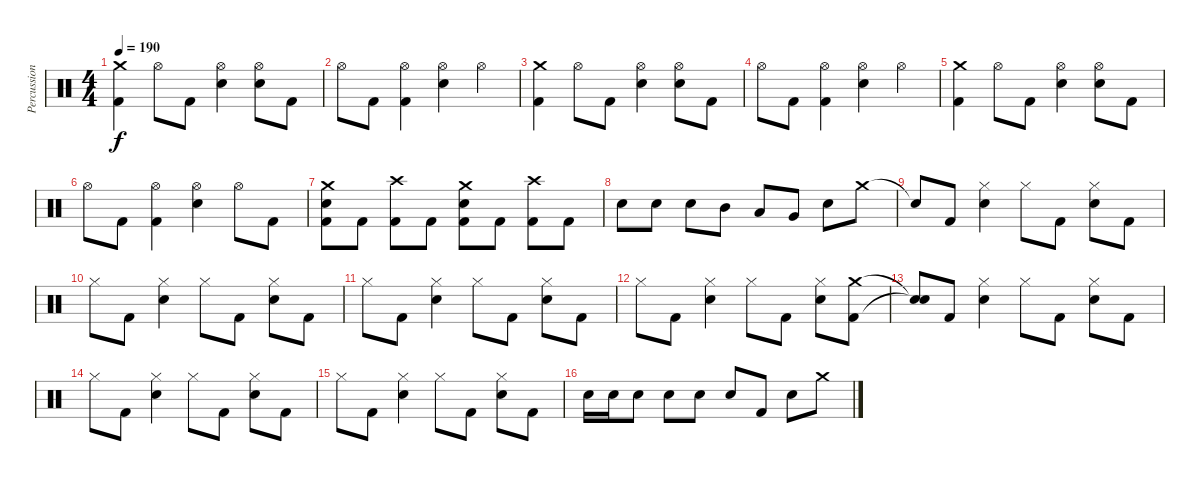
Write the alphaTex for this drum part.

\track ("Percussion" "Percussion") {instrument percussion}
\staff {score}
\articulation defaults
\ts (4 4)
\tempo 190
\clef neutral
\ks c
("Crash medium (hit)" "Kick (hit) 2").4{dy f} "Hi-Hat (open)".8 "Kick (hit) 2".8 ("Hi-Hat (open)" "Snare (hit) 2").4 ("Hi-Hat (open)" "Snare (hit) 2").8 "Kick (hit) 2".8 |
"Hi-Hat (open)".8 "Kick (hit) 2".8 ("Hi-Hat (open)" "Kick (hit) 2").4 ("Hi-Hat (open)" "Snare (hit) 2").4 "Hi-Hat (open)".4 |
("Crash medium (hit)" "Kick (hit) 2").4 "Hi-Hat (open)".8 "Kick (hit) 2".8 ("Hi-Hat (open)" "Snare (hit) 2").4 ("Hi-Hat (open)" "Snare (hit) 2").8 "Kick (hit) 2".8 |
"Hi-Hat (open)".8 "Kick (hit) 2".8 ("Hi-Hat (open)" "Kick (hit) 2").4 ("Hi-Hat (open)" "Snare (hit) 2").4 "Hi-Hat (open)".4 |
("Crash medium (hit)" "Kick (hit) 2").4 "Hi-Hat (open)".8 "Kick (hit) 2".8 ("Hi-Hat (open)" "Snare (hit) 2").4 ("Hi-Hat (open)" "Snare (hit) 2").8 "Kick (hit) 2".8 |
"Hi-Hat (open)".8 "Kick (hit) 2".8 ("Hi-Hat (open)" "Kick (hit) 2").4 ("Hi-Hat (open)" "Snare (hit) 2").4 "Hi-Hat (open)".8 "Kick (hit) 2".8 |
("Crash medium (hit)" "Snare (hit) 2" "Kick (hit) 2").8 "Kick (hit) 2".8 ("Crash high (hit)" "Kick (hit) 2").8 "Kick (hit) 2".8 ("Crash medium (hit)" "Snare (hit) 2" "Kick (hit) 2").8 "Kick (hit) 2".8 ("Crash high (hit)" "Kick (hit) 2").8 "Kick (hit) 2".8 |
"Snare (hit) 2".8 "Snare (hit) 2".8 "Snare (hit) 2".8 "Mid Tom (hit)".8 "Low Tom (hit)".8 "Very Low Tom (hit)".8 "Snare (hit) 2".8 "Crash medium (hit)".8 |
"Snare (hit)"{t}.8 "Kick (hit) 2".8 ("Hi-Hat (closed)" "Snare (hit) 2").4 "Hi-Hat (closed)".8 "Kick (hit) 2".8 ("Hi-Hat (closed)" "Snare (hit) 2").8 "Kick (hit) 2".8 |
"Hi-Hat (closed)".8 "Kick (hit) 2".8 ("Hi-Hat (closed)" "Snare (hit) 2").4 "Hi-Hat (closed)".8 "Kick (hit) 2".8 ("Hi-Hat (closed)" "Snare (hit) 2").8 "Kick (hit) 2".8 |
"Hi-Hat (closed)".8 "Kick (hit) 2".8 ("Hi-Hat (closed)" "Snare (hit) 2").4 "Hi-Hat (closed)".8 "Kick (hit) 2".8 ("Hi-Hat (closed)" "Snare (hit) 2").8 "Kick (hit) 2".8 |
"Hi-Hat (closed)".8 "Kick (hit) 2".8 ("Hi-Hat (closed)" "Snare (hit) 2").4 "Hi-Hat (closed)".8 "Kick (hit) 2".8 ("Hi-Hat (closed)" "Snare (hit) 2").8 ("Crash medium (hit)" "Kick (hit) 2").8 |
("Snare (hit)"{t} "Snare (hit)"{t}).8 "Kick (hit) 2".8 ("Hi-Hat (closed)" "Snare (hit) 2").4 "Hi-Hat (closed)".8 "Kick (hit) 2".8 ("Hi-Hat (closed)" "Snare (hit) 2").8 "Kick (hit) 2".8 |
"Hi-Hat (closed)".8 "Kick (hit) 2".8 ("Hi-Hat (closed)" "Snare (hit) 2").4 "Hi-Hat (closed)".8 "Kick (hit) 2".8 ("Hi-Hat (closed)" "Snare (hit) 2").8 "Kick (hit) 2".8 |
"Hi-Hat (closed)".8 "Kick (hit) 2".8 ("Hi-Hat (closed)" "Snare (hit) 2").4 "Hi-Hat (closed)".8 "Kick (hit) 2".8 ("Hi-Hat (closed)" "Snare (hit) 2").8 "Kick (hit) 2".8 |
"Snare (hit) 2".16 "Snare (hit) 2".16 "Snare (hit) 2".8 "Snare (hit) 2".8 "Snare (hit) 2".8 "Snare (hit) 2".8 "Kick (hit) 2".8 "Snare (hit) 2".8 "Crash medium (hit)".8
